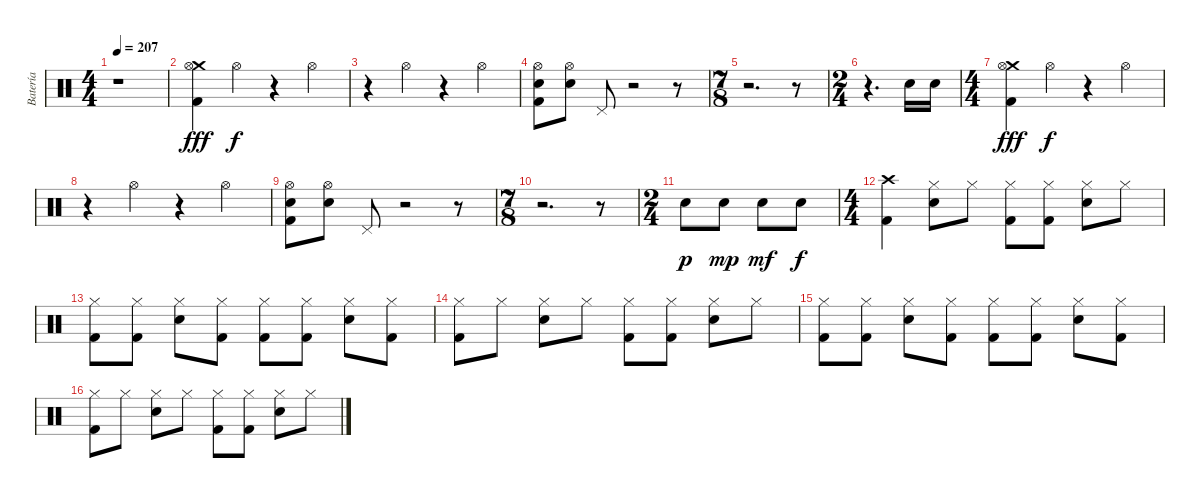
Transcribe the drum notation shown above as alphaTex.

\track ("Batería" "Batería") {instrument percussion}
\staff {score}
\articulation defaults
\ts (4 4)
\tempo 207
\clef neutral
\ks c
r.1{dy fff} |
("Crash medium (hit)" "Hi-Hat (open)" "Kick (hit) 2").4 "Hi-Hat (open)".4{dy f} r.4 "Hi-Hat (open)".4 |
r.4 "Hi-Hat (open)".4 r.4 "Hi-Hat (open)".4 |
("Snare (hit) 2" "Hi-Hat (open)" "Kick (hit) 2").8 ("Snare (hit) 2" "Hi-Hat (open)").8 "Pedal Hi-Hat (hit)".8 r.2 r.8 |
\ts (7 8)
r.2{d} r.8 |
\ts (2 4)
r.4{d} "Snare (hit) 2".16 "Snare (hit) 2".16 |
\ts (4 4)
("Crash medium (hit)" "Hi-Hat (open)" "Kick (hit) 2").4{dy fff} "Hi-Hat (open)".4{dy f} r.4 "Hi-Hat (open)".4 |
r.4 "Hi-Hat (open)".4 r.4 "Hi-Hat (open)".4 |
("Snare (hit) 2" "Hi-Hat (open)" "Kick (hit) 2").8 ("Snare (hit) 2" "Hi-Hat (open)").8 "Pedal Hi-Hat (hit)".8 r.2 r.8 |
\ts (7 8)
r.2{d} r.8 |
\ts (2 4)
"Snare (hit) 2".8{dy p} "Snare (hit) 2".8{dy mp} "Snare (hit) 2".8{dy mf} "Snare (hit) 2".8{dy f} |
\ts (4 4)
("Crash high (hit)" "Kick (hit) 2").4 ("Snare (hit) 2" "Hi-Hat (closed)").8 "Hi-Hat (closed)".8 ("Hi-Hat (closed)" "Kick (hit) 2").8 ("Hi-Hat (closed)" "Kick (hit) 2").8 ("Snare (hit) 2" "Hi-Hat (closed)").8 "Hi-Hat (closed)".8 |
("Hi-Hat (closed)" "Kick (hit) 2").8 ("Hi-Hat (closed)" "Kick (hit) 2").8 ("Snare (hit) 2" "Hi-Hat (closed)").8 ("Hi-Hat (closed)" "Kick (hit) 2").8 ("Hi-Hat (closed)" "Kick (hit) 2").8 ("Hi-Hat (closed)" "Kick (hit) 2").8 ("Snare (hit) 2" "Hi-Hat (closed)").8 ("Hi-Hat (closed)" "Kick (hit) 2").8 |
("Hi-Hat (closed)" "Kick (hit) 2").8 "Hi-Hat (closed)".8 ("Snare (hit) 2" "Hi-Hat (closed)").8 "Hi-Hat (closed)".8 ("Hi-Hat (closed)" "Kick (hit) 2").8 ("Hi-Hat (closed)" "Kick (hit) 2").8 ("Snare (hit) 2" "Hi-Hat (closed)").8 "Hi-Hat (closed)".8 |
("Hi-Hat (closed)" "Kick (hit) 2").8 ("Hi-Hat (closed)" "Kick (hit) 2").8 ("Snare (hit) 2" "Hi-Hat (closed)").8 ("Hi-Hat (closed)" "Kick (hit) 2").8 ("Hi-Hat (closed)" "Kick (hit) 2").8 ("Hi-Hat (closed)" "Kick (hit) 2").8 ("Snare (hit) 2" "Hi-Hat (closed)").8 ("Hi-Hat (closed)" "Kick (hit) 2").8 |
("Hi-Hat (closed)" "Kick (hit) 2").8 "Hi-Hat (closed)".8 ("Snare (hit) 2" "Hi-Hat (closed)").8 "Hi-Hat (closed)".8 ("Hi-Hat (closed)" "Kick (hit) 2").8 ("Hi-Hat (closed)" "Kick (hit) 2").8 ("Snare (hit) 2" "Hi-Hat (closed)").8 "Hi-Hat (closed)".8
